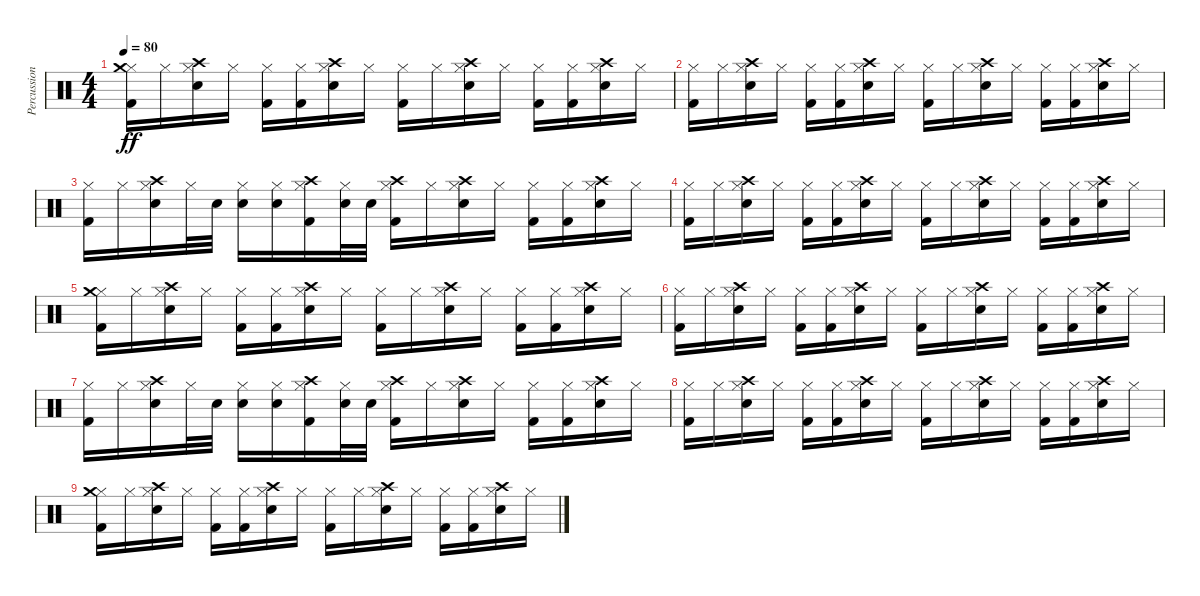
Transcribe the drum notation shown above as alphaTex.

\track ("Percussion" "Percussion") {instrument percussion}
\staff {score}
\articulation defaults
\ts (4 4)
\tempo 80
\clef neutral
\ks c
("Kick (hit) 2" "Hi-Hat (closed)" "Crash medium (hit)").16{dy ff} "Hi-Hat (closed)".16 ("Snare (hit) 2" "Hi-Hat (closed)" "Crash high (hit)").16 "Hi-Hat (closed)".16 ("Kick (hit) 2" "Hi-Hat (closed)").16 ("Kick (hit) 2" "Hi-Hat (closed)").16 ("Snare (hit) 2" "Hi-Hat (closed)" "Crash high (hit)").16 "Hi-Hat (closed)".16 ("Kick (hit) 2" "Hi-Hat (closed)").16 "Hi-Hat (closed)".16 ("Snare (hit) 2" "Hi-Hat (closed)" "Crash high (hit)").16 "Hi-Hat (closed)".16 ("Kick (hit) 2" "Hi-Hat (closed)").16 ("Kick (hit) 2" "Hi-Hat (closed)").16 ("Snare (hit) 2" "Hi-Hat (closed)" "Crash high (hit)").16 "Hi-Hat (closed)".16 |
("Kick (hit) 2" "Hi-Hat (closed)").16 "Hi-Hat (closed)".16 ("Snare (hit) 2" "Hi-Hat (closed)" "Crash high (hit)").16 "Hi-Hat (closed)".16 ("Kick (hit) 2" "Hi-Hat (closed)").16 ("Kick (hit) 2" "Hi-Hat (closed)").16 ("Snare (hit) 2" "Hi-Hat (closed)" "Crash high (hit)").16 "Hi-Hat (closed)".16 ("Kick (hit) 2" "Hi-Hat (closed)").16 "Hi-Hat (closed)".16 ("Snare (hit) 2" "Hi-Hat (closed)" "Crash high (hit)").16 "Hi-Hat (closed)".16 ("Kick (hit) 2" "Hi-Hat (closed)").16 ("Kick (hit) 2" "Hi-Hat (closed)").16 ("Snare (hit) 2" "Hi-Hat (closed)" "Crash high (hit)").16 "Hi-Hat (closed)".16 |
("Kick (hit) 2" "Hi-Hat (closed)").16 "Hi-Hat (closed)".16 ("Snare (hit) 2" "Hi-Hat (closed)" "Crash high (hit)").16 "Hi-Hat (closed)".32 "Snare (hit) 2".32 ("Snare (hit) 2" "Hi-Hat (closed)").16 ("Snare (hit) 2" "Hi-Hat (closed)").16 ("Kick (hit) 2" "Hi-Hat (closed)" "Crash high (hit)").16 ("Snare (hit) 2" "Hi-Hat (closed)").32 "Snare (hit) 2".32 ("Kick (hit) 2" "Hi-Hat (closed)" "Crash high (hit)").16 "Hi-Hat (closed)".16 ("Snare (hit) 2" "Hi-Hat (closed)" "Crash high (hit)").16 "Hi-Hat (closed)".16 ("Kick (hit) 2" "Hi-Hat (closed)").16 ("Kick (hit) 2" "Hi-Hat (closed)").16 ("Snare (hit) 2" "Hi-Hat (closed)" "Crash high (hit)").16 "Hi-Hat (closed)".16 |
("Kick (hit) 2" "Hi-Hat (closed)").16 "Hi-Hat (closed)".16 ("Snare (hit) 2" "Hi-Hat (closed)" "Crash high (hit)").16 "Hi-Hat (closed)".16 ("Kick (hit) 2" "Hi-Hat (closed)").16 ("Kick (hit) 2" "Hi-Hat (closed)").16 ("Snare (hit) 2" "Hi-Hat (closed)" "Crash high (hit)").16 "Hi-Hat (closed)".16 ("Kick (hit) 2" "Hi-Hat (closed)").16 "Hi-Hat (closed)".16 ("Snare (hit) 2" "Hi-Hat (closed)" "Crash high (hit)").16 "Hi-Hat (closed)".16 ("Kick (hit) 2" "Hi-Hat (closed)").16 ("Kick (hit) 2" "Hi-Hat (closed)").16 ("Snare (hit) 2" "Hi-Hat (closed)" "Crash high (hit)").16 "Hi-Hat (closed)".16 |
("Kick (hit) 2" "Hi-Hat (closed)" "Crash medium (hit)").16 "Hi-Hat (closed)".16 ("Snare (hit) 2" "Hi-Hat (closed)" "Crash high (hit)").16 "Hi-Hat (closed)".16 ("Kick (hit) 2" "Hi-Hat (closed)").16 ("Kick (hit) 2" "Hi-Hat (closed)").16 ("Snare (hit) 2" "Hi-Hat (closed)" "Crash high (hit)").16 "Hi-Hat (closed)".16 ("Kick (hit) 2" "Hi-Hat (closed)").16 "Hi-Hat (closed)".16 ("Snare (hit) 2" "Hi-Hat (closed)" "Crash high (hit)").16 "Hi-Hat (closed)".16 ("Kick (hit) 2" "Hi-Hat (closed)").16 ("Kick (hit) 2" "Hi-Hat (closed)").16 ("Snare (hit) 2" "Hi-Hat (closed)" "Crash high (hit)").16 "Hi-Hat (closed)".16 |
("Kick (hit) 2" "Hi-Hat (closed)").16 "Hi-Hat (closed)".16 ("Snare (hit) 2" "Hi-Hat (closed)" "Crash high (hit)").16 "Hi-Hat (closed)".16 ("Kick (hit) 2" "Hi-Hat (closed)").16 ("Kick (hit) 2" "Hi-Hat (closed)").16 ("Snare (hit) 2" "Hi-Hat (closed)" "Crash high (hit)").16 "Hi-Hat (closed)".16 ("Kick (hit) 2" "Hi-Hat (closed)").16 "Hi-Hat (closed)".16 ("Snare (hit) 2" "Hi-Hat (closed)" "Crash high (hit)").16 "Hi-Hat (closed)".16 ("Kick (hit) 2" "Hi-Hat (closed)").16 ("Kick (hit) 2" "Hi-Hat (closed)").16 ("Snare (hit) 2" "Hi-Hat (closed)" "Crash high (hit)").16 "Hi-Hat (closed)".16 |
("Kick (hit) 2" "Hi-Hat (closed)").16 "Hi-Hat (closed)".16 ("Snare (hit) 2" "Hi-Hat (closed)" "Crash high (hit)").16 "Hi-Hat (closed)".32 "Snare (hit) 2".32 ("Snare (hit) 2" "Hi-Hat (closed)").16 ("Snare (hit) 2" "Hi-Hat (closed)").16 ("Kick (hit) 2" "Hi-Hat (closed)" "Crash high (hit)").16 ("Snare (hit) 2" "Hi-Hat (closed)").32 "Snare (hit) 2".32 ("Kick (hit) 2" "Hi-Hat (closed)" "Crash high (hit)").16 "Hi-Hat (closed)".16 ("Snare (hit) 2" "Hi-Hat (closed)" "Crash high (hit)").16 "Hi-Hat (closed)".16 ("Kick (hit) 2" "Hi-Hat (closed)").16 ("Kick (hit) 2" "Hi-Hat (closed)").16 ("Snare (hit) 2" "Hi-Hat (closed)" "Crash high (hit)").16 "Hi-Hat (closed)".16 |
("Kick (hit) 2" "Hi-Hat (closed)").16 "Hi-Hat (closed)".16 ("Snare (hit) 2" "Hi-Hat (closed)" "Crash high (hit)").16 "Hi-Hat (closed)".16 ("Kick (hit) 2" "Hi-Hat (closed)").16 ("Kick (hit) 2" "Hi-Hat (closed)").16 ("Snare (hit) 2" "Hi-Hat (closed)" "Crash high (hit)").16 "Hi-Hat (closed)".16 ("Kick (hit) 2" "Hi-Hat (closed)").16 "Hi-Hat (closed)".16 ("Snare (hit) 2" "Hi-Hat (closed)" "Crash high (hit)").16 "Hi-Hat (closed)".16 ("Kick (hit) 2" "Hi-Hat (closed)").16 ("Kick (hit) 2" "Hi-Hat (closed)").16 ("Snare (hit) 2" "Hi-Hat (closed)" "Crash high (hit)").16 "Hi-Hat (closed)".16 |
("Kick (hit) 2" "Hi-Hat (closed)" "Crash medium (hit)").16 "Hi-Hat (closed)".16 ("Snare (hit) 2" "Hi-Hat (closed)" "Crash high (hit)").16 "Hi-Hat (closed)".16 ("Kick (hit) 2" "Hi-Hat (closed)").16 ("Kick (hit) 2" "Hi-Hat (closed)").16 ("Snare (hit) 2" "Hi-Hat (closed)" "Crash high (hit)").16 "Hi-Hat (closed)".16 ("Kick (hit) 2" "Hi-Hat (closed)").16 "Hi-Hat (closed)".16 ("Snare (hit) 2" "Hi-Hat (closed)" "Crash high (hit)").16 "Hi-Hat (closed)".16 ("Kick (hit) 2" "Hi-Hat (closed)").16 ("Kick (hit) 2" "Hi-Hat (closed)").16 ("Snare (hit) 2" "Hi-Hat (closed)" "Crash high (hit)").16 "Hi-Hat (closed)".16
